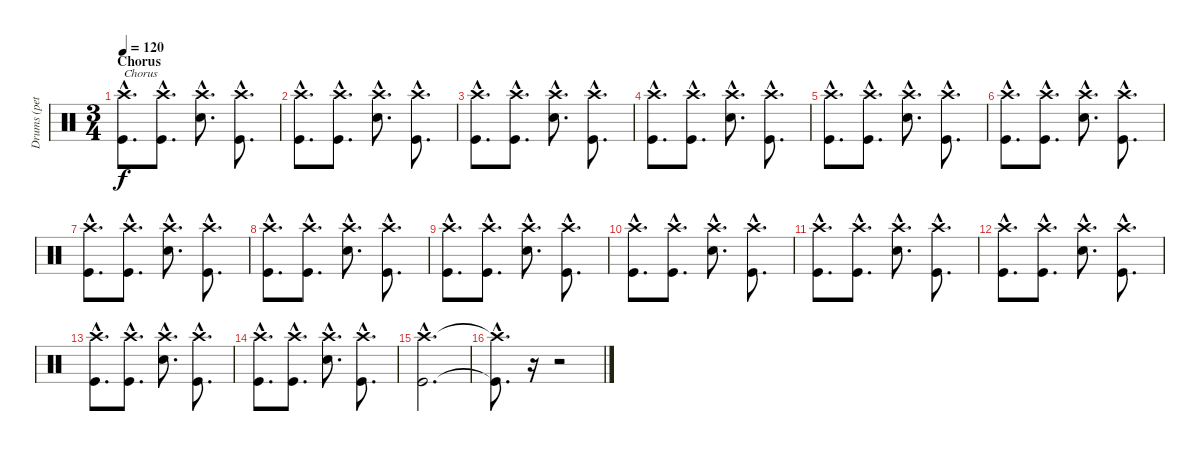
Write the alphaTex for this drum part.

\track ("Drums (pete)" "Drums (pet") {instrument percussion}
\staff {score}
\articulation defaults
\ts (3 4)
\section ("" "Chorus")
\tempo 120
\clef neutral
\ks c
("Crash high (hit)"{hac} "Kick (hit)"{hac}).8{d txt "Chorus" dy f} ("Crash high (hit)"{hac} "Kick (hit)"{hac}).8{d} ("Crash high (hit)"{hac} "Snare (hit) 2"{hac}).8{d} ("Crash high (hit)"{hac} "Kick (hit)"{hac}).8{d} |
("Crash high (hit)"{hac} "Kick (hit)"{hac}).8{d} ("Crash high (hit)"{hac} "Kick (hit)"{hac}).8{d} ("Crash high (hit)"{hac} "Snare (hit) 2"{hac}).8{d} ("Crash high (hit)"{hac} "Kick (hit)"{hac}).8{d} |
("Crash high (hit)"{hac} "Kick (hit)"{hac}).8{d} ("Crash high (hit)"{hac} "Kick (hit)"{hac}).8{d} ("Crash high (hit)"{hac} "Snare (hit) 2"{hac}).8{d} ("Crash high (hit)"{hac} "Kick (hit)"{hac}).8{d} |
("Crash high (hit)"{hac} "Kick (hit)"{hac}).8{d} ("Crash high (hit)"{hac} "Kick (hit)"{hac}).8{d} ("Crash high (hit)"{hac} "Snare (hit) 2"{hac}).8{d} ("Crash high (hit)"{hac} "Kick (hit)"{hac}).8{d} |
("Crash high (hit)"{hac} "Kick (hit)"{hac}).8{d} ("Crash high (hit)"{hac} "Kick (hit)"{hac}).8{d} ("Crash high (hit)"{hac} "Snare (hit) 2"{hac}).8{d} ("Crash high (hit)"{hac} "Kick (hit)"{hac}).8{d} |
("Crash high (hit)"{hac} "Kick (hit)"{hac}).8{d} ("Crash high (hit)"{hac} "Kick (hit)"{hac}).8{d} ("Crash high (hit)"{hac} "Snare (hit) 2"{hac}).8{d} ("Crash high (hit)"{hac} "Kick (hit)"{hac}).8{d} |
("Crash high (hit)"{hac} "Kick (hit)"{hac}).8{d} ("Crash high (hit)"{hac} "Kick (hit)"{hac}).8{d} ("Crash high (hit)"{hac} "Snare (hit) 2"{hac}).8{d} ("Crash high (hit)"{hac} "Kick (hit)"{hac}).8{d} |
("Crash high (hit)"{hac} "Kick (hit)"{hac}).8{d} ("Crash high (hit)"{hac} "Kick (hit)"{hac}).8{d} ("Crash high (hit)"{hac} "Snare (hit) 2"{hac}).8{d} ("Crash high (hit)"{hac} "Kick (hit)"{hac}).8{d} |
("Crash high (hit)"{hac} "Kick (hit)"{hac}).8{d} ("Crash high (hit)"{hac} "Kick (hit)"{hac}).8{d} ("Crash high (hit)"{hac} "Snare (hit) 2"{hac}).8{d} ("Crash high (hit)"{hac} "Kick (hit)"{hac}).8{d} |
("Crash high (hit)"{hac} "Kick (hit)"{hac}).8{d} ("Crash high (hit)"{hac} "Kick (hit)"{hac}).8{d} ("Crash high (hit)"{hac} "Snare (hit) 2"{hac}).8{d} ("Crash high (hit)"{hac} "Kick (hit)"{hac}).8{d} |
("Crash high (hit)"{hac} "Kick (hit)"{hac}).8{d} ("Crash high (hit)"{hac} "Kick (hit)"{hac}).8{d} ("Crash high (hit)"{hac} "Snare (hit) 2"{hac}).8{d} ("Crash high (hit)"{hac} "Kick (hit)"{hac}).8{d} |
("Crash high (hit)"{hac} "Kick (hit)"{hac}).8{d} ("Crash high (hit)"{hac} "Kick (hit)"{hac}).8{d} ("Crash high (hit)"{hac} "Snare (hit) 2"{hac}).8{d} ("Crash high (hit)"{hac} "Kick (hit)"{hac}).8{d} |
("Crash high (hit)"{hac} "Kick (hit)"{hac}).8{d} ("Crash high (hit)"{hac} "Kick (hit)"{hac}).8{d} ("Crash high (hit)"{hac} "Snare (hit) 2"{hac}).8{d} ("Crash high (hit)"{hac} "Kick (hit)"{hac}).8{d} |
("Crash high (hit)"{hac} "Kick (hit)"{hac}).8{d} ("Crash high (hit)"{hac} "Kick (hit)"{hac}).8{d} ("Crash high (hit)"{hac} "Snare (hit) 2"{hac}).8{d} ("Crash high (hit)"{hac} "Kick (hit)"{hac}).8{d} |
("Crash high (hit)"{hac} "Kick (hit)"{hac}).2{d} |
("Crash high (hit)"{hac t} "Kick (hit)"{hac t}).8{d} r.16 r.2
